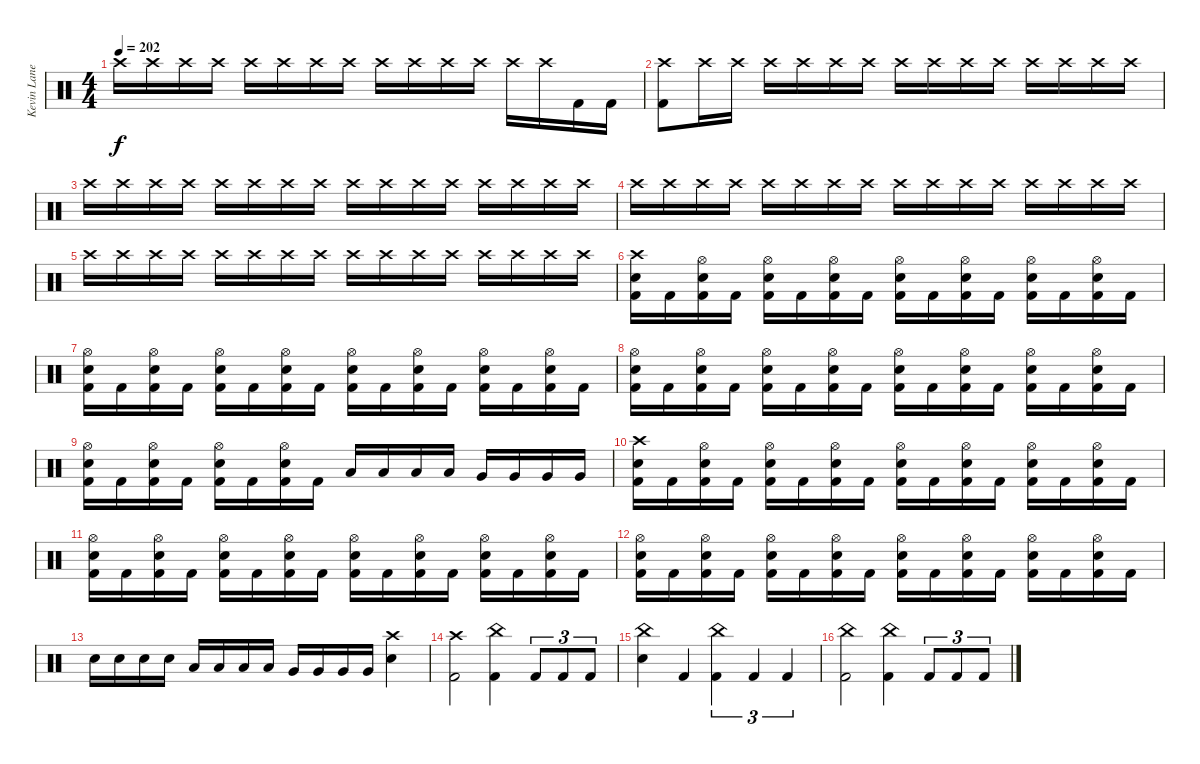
\track ("Kevin Lane (Drums)" "Kevin Lane") {instrument percussion}
\staff {score}
\articulation defaults
\ts (4 4)
\tempo 202
\clef neutral
\ks c "Crash high (hit)".16{dy f} "Crash high (hit)".16 "Crash high (hit)".16 "Crash high (hit)".16 "Crash high (hit)".16 "Crash high (hit)".16 "Crash high (hit)".16 "Crash high (hit)".16 "Crash high (hit)".16 "Crash high (hit)".16 "Crash high (hit)".16 "Crash high (hit)".16 "Crash high (hit)".16 "Crash high (hit)".16 "Kick (hit) 2".16 "Kick (hit) 2".16
|
("Crash high (hit)" "Kick (hit) 2").8 "Crash high (hit)".16 "Crash high (hit)".16 "Crash high (hit)".16 "Crash high (hit)".16 "Crash high (hit)".16 "Crash high (hit)".16 "Crash high (hit)".16 "Crash high (hit)".16 "Crash high (hit)".16 "Crash high (hit)".16 "Crash high (hit)".16 "Crash high (hit)".16 "Crash high (hit)".16 "Crash high (hit)".16 |
"Crash high (hit)".16 "Crash high (hit)".16 "Crash high (hit)".16 "Crash high (hit)".16 "Crash high (hit)".16 "Crash high (hit)".16 "Crash high (hit)".16 "Crash high (hit)".16 "Crash high (hit)".16 "Crash high (hit)".16 "Crash high (hit)".16 "Crash high (hit)".16 "Crash high (hit)".16 "Crash high (hit)".16 "Crash high (hit)".16 "Crash high (hit)".16 |
"Crash high (hit)".16 "Crash high (hit)".16 "Crash high (hit)".16 "Crash high (hit)".16 "Crash high (hit)".16 "Crash high (hit)".16 "Crash high (hit)".16 "Crash high (hit)".16 "Crash high (hit)".16 "Crash high (hit)".16 "Crash high (hit)".16 "Crash high (hit)".16 "Crash high (hit)".16 "Crash high (hit)".16 "Crash high (hit)".16 "Crash high (hit)".16 |
"Crash high (hit)".16 "Crash high (hit)".16 "Crash high (hit)".16 "Crash high (hit)".16 "Crash high (hit)".16 "Crash high (hit)".16 "Crash high (hit)".16 "Crash high (hit)".16 "Crash high (hit)".16 "Crash high (hit)".16 "Crash high (hit)".16 "Crash high (hit)".16 "Crash high (hit)".16 "Crash high (hit)".16 "Crash high (hit)".16 "Crash high (hit)".16 |
("Crash high (hit)" "Snare (hit) 2" "Kick (hit) 2").16 "Kick (hit) 2".16 ("Hi-Hat (open)" "Snare (hit) 2" "Kick (hit) 2").16 "Kick (hit) 2".16 ("Hi-Hat (open)" "Snare (hit) 2" "Kick (hit) 2").16 "Kick (hit) 2".16 ("Hi-Hat (open)" "Snare (hit) 2" "Kick (hit) 2").16 "Kick (hit) 2".16 ("Hi-Hat (open)" "Snare (hit) 2" "Kick (hit) 2").16 "Kick (hit) 2".16 ("Hi-Hat (open)" "Snare (hit) 2" "Kick (hit) 2").16 "Kick (hit) 2".16 ("Hi-Hat (open)" "Snare (hit) 2" "Kick (hit) 2").16 "Kick (hit) 2".16 ("Hi-Hat (open)" "Snare (hit) 2" "Kick (hit) 2").16 "Kick (hit) 2".16 |
("Hi-Hat (open)" "Snare (hit) 2" "Kick (hit) 2").16 "Kick (hit) 2".16 ("Hi-Hat (open)" "Snare (hit) 2" "Kick (hit) 2").16 "Kick (hit) 2".16 ("Hi-Hat (open)" "Snare (hit) 2" "Kick (hit) 2").16 "Kick (hit) 2".16 ("Hi-Hat (open)" "Snare (hit) 2" "Kick (hit) 2").16 "Kick (hit) 2".16 ("Hi-Hat (open)" "Snare (hit) 2" "Kick (hit) 2").16 "Kick (hit) 2".16 ("Hi-Hat (open)" "Snare (hit) 2" "Kick (hit) 2").16 "Kick (hit) 2".16 ("Hi-Hat (open)" "Snare (hit) 2" "Kick (hit) 2").16 "Kick (hit) 2".16 ("Hi-Hat (open)" "Snare (hit) 2" "Kick (hit) 2").16 "Kick (hit) 2".16 |
("Hi-Hat (open)" "Snare (hit) 2" "Kick (hit) 2").16 "Kick (hit) 2".16 ("Hi-Hat (open)" "Snare (hit) 2" "Kick (hit) 2").16 "Kick (hit) 2".16 ("Hi-Hat (open)" "Snare (hit) 2" "Kick (hit) 2").16 "Kick (hit) 2".16 ("Hi-Hat (open)" "Snare (hit) 2" "Kick (hit) 2").16 "Kick (hit) 2".16 ("Hi-Hat (open)" "Snare (hit) 2" "Kick (hit) 2").16 "Kick (hit) 2".16 ("Hi-Hat (open)" "Snare (hit) 2" "Kick (hit) 2").16 "Kick (hit) 2".16 ("Hi-Hat (open)" "Snare (hit) 2" "Kick (hit) 2").16 "Kick (hit) 2".16 ("Hi-Hat (open)" "Snare (hit) 2" "Kick (hit) 2").16 "Kick (hit) 2".16 |
("Hi-Hat (open)" "Snare (hit) 2" "Kick (hit) 2").16 "Kick (hit) 2".16 ("Hi-Hat (open)" "Snare (hit) 2" "Kick (hit) 2").16 "Kick (hit) 2".16 ("Hi-Hat (open)" "Snare (hit) 2" "Kick (hit) 2").16 "Kick (hit) 2".16 ("Hi-Hat (open)" "Snare (hit) 2" "Kick (hit) 2").16 "Kick (hit) 2".16 "Low Tom (hit)".16 "Low Tom (hit)".16 "Low Tom (hit)".16 "Low Tom (hit)".16 "Very Low Tom (hit)".16 "Very Low Tom (hit)".16 "Very Low Tom (hit)".16 "Very Low Tom (hit)".16 |
("Crash high (hit)" "Snare (hit) 2" "Kick (hit) 2").16 "Kick (hit) 2".16 ("Hi-Hat (open)" "Snare (hit) 2" "Kick (hit) 2").16 "Kick (hit) 2".16 ("Hi-Hat (open)" "Snare (hit) 2" "Kick (hit) 2").16 "Kick (hit) 2".16 ("Hi-Hat (open)" "Snare (hit) 2" "Kick (hit) 2").16 "Kick (hit) 2".16 ("Hi-Hat (open)" "Snare (hit) 2" "Kick (hit) 2").16 "Kick (hit) 2".16 ("Hi-Hat (open)" "Snare (hit) 2" "Kick (hit) 2").16 "Kick (hit) 2".16 ("Hi-Hat (open)" "Snare (hit) 2" "Kick (hit) 2").16 "Kick (hit) 2".16 ("Hi-Hat (open)" "Snare (hit) 2" "Kick (hit) 2").16 "Kick (hit) 2".16 |
("Hi-Hat (open)" "Snare (hit) 2" "Kick (hit) 2").16 "Kick (hit) 2".16 ("Hi-Hat (open)" "Snare (hit) 2" "Kick (hit) 2").16 "Kick (hit) 2".16 ("Hi-Hat (open)" "Snare (hit) 2" "Kick (hit) 2").16 "Kick (hit) 2".16 ("Hi-Hat (open)" "Snare (hit) 2" "Kick (hit) 2").16 "Kick (hit) 2".16 ("Hi-Hat (open)" "Snare (hit) 2" "Kick (hit) 2").16 "Kick (hit) 2".16 ("Hi-Hat (open)" "Snare (hit) 2" "Kick (hit) 2").16 "Kick (hit) 2".16 ("Hi-Hat (open)" "Snare (hit) 2" "Kick (hit) 2").16 "Kick (hit) 2".16 ("Hi-Hat (open)" "Snare (hit) 2" "Kick (hit) 2").16 "Kick (hit) 2".16 |
("Hi-Hat (open)" "Snare (hit) 2" "Kick (hit) 2").16 "Kick (hit) 2".16 ("Hi-Hat (open)" "Snare (hit) 2" "Kick (hit) 2").16 "Kick (hit) 2".16 ("Hi-Hat (open)" "Snare (hit) 2" "Kick (hit) 2").16 "Kick (hit) 2".16 ("Hi-Hat (open)" "Snare (hit) 2" "Kick (hit) 2").16 "Kick (hit) 2".16 ("Hi-Hat (open)" "Snare (hit) 2" "Kick (hit) 2").16 "Kick (hit) 2".16 ("Hi-Hat (open)" "Snare (hit) 2" "Kick (hit) 2").16 "Kick (hit) 2".16 ("Hi-Hat (open)" "Snare (hit) 2" "Kick (hit) 2").16 "Kick (hit) 2".16 ("Hi-Hat (open)" "Snare (hit) 2" "Kick (hit) 2").16 "Kick (hit) 2".16 |
"Snare (hit) 2".16 "Snare (hit) 2".16 "Snare (hit) 2".16 "Snare (hit) 2".16 "Low Tom (hit)".16 "Low Tom (hit)".16 "Low Tom (hit)".16 "Low Tom (hit)".16 "Very Low Tom (hit)".16 "Very Low Tom (hit)".16 "Very Low Tom (hit)".16 "Very Low Tom (hit)".16 ("Crash high (hit)" "Snare (hit) 2").4 |
("Crash high (hit)" "Kick (hit) 2").2 ("China (hit)" "Kick (hit) 2").4 "Kick (hit) 2".8{tu (3 2)} "Kick (hit) 2".8{tu (3 2)} "Kick (hit) 2".8{tu (3 2)} |
("China (hit)" "Snare (hit) 2").4 "Kick (hit) 2".4 ("China (hit)" "Kick (hit) 2").4{tu (3 2)} "Kick (hit) 2".4{tu (3 2)} "Kick (hit) 2".4{tu (3 2)} |
("China (hit)" "Kick (hit) 2").2 ("China (hit)" "Kick (hit) 2").4 "Kick (hit) 2".8{tu (3 2)} "Kick (hit) 2".8{tu (3 2)} "Kick (hit) 2".8{tu (3 2)}
